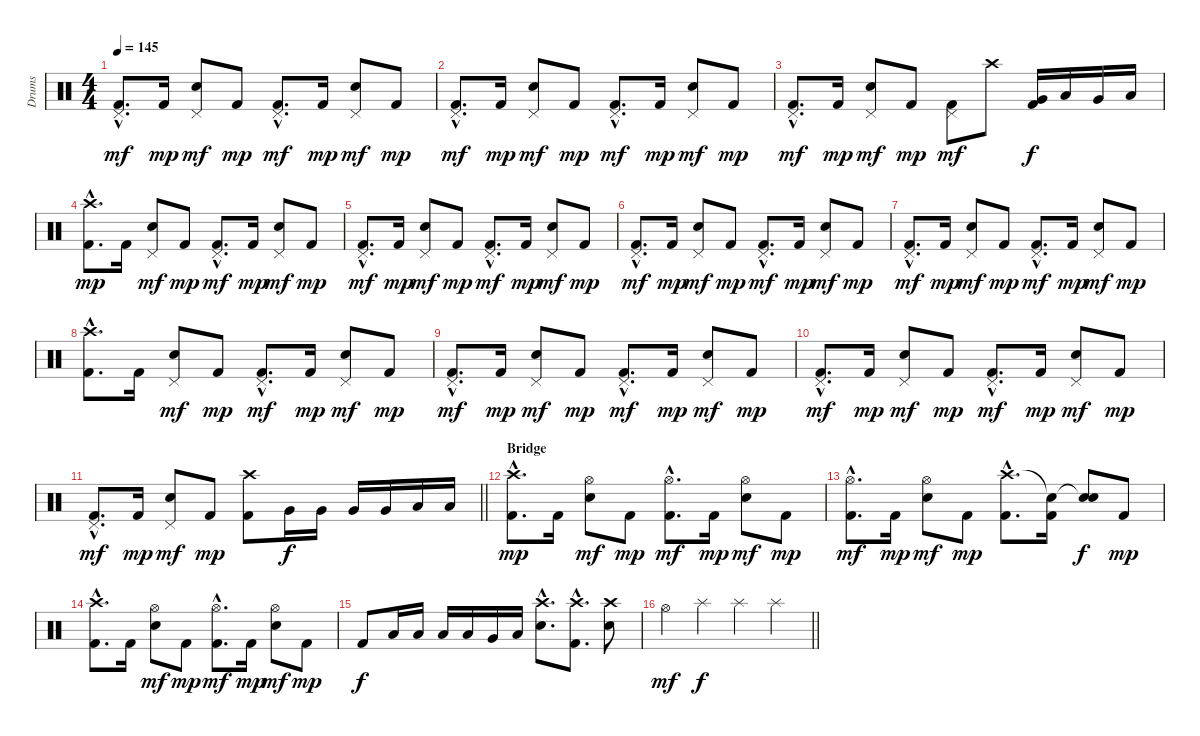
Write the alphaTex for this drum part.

\track ("Drums" "Drums") {instrument percussion}
\staff {score}
\articulation defaults
\ts (4 4)
\tempo 145
\clef neutral
\ks c
("Kick (hit) 2"{hac} "Pedal Hi-Hat (hit)"{hac}).8{d dy mf} "Kick (hit) 2".16{dy mp} ("Electric Snare (hit)" "Pedal Hi-Hat (hit)").8{dy mf} "Kick (hit) 2".8{dy mp} ("Kick (hit) 2"{hac} "Pedal Hi-Hat (hit)"{hac}).8{d dy mf} "Kick (hit) 2".16{dy mp} ("Electric Snare (hit)" "Pedal Hi-Hat (hit)").8{dy mf} "Kick (hit) 2".8{dy mp} |
("Kick (hit) 2"{hac} "Pedal Hi-Hat (hit)"{hac}).8{d dy mf} "Kick (hit) 2".16{dy mp} ("Electric Snare (hit)" "Pedal Hi-Hat (hit)").8{dy mf} "Kick (hit) 2".8{dy mp} ("Kick (hit) 2"{hac} "Pedal Hi-Hat (hit)"{hac}).8{d dy mf} "Kick (hit) 2".16{dy mp} ("Electric Snare (hit)" "Pedal Hi-Hat (hit)").8{dy mf} "Kick (hit) 2".8{dy mp} |
("Kick (hit) 2"{hac} "Pedal Hi-Hat (hit)"{hac}).8{d dy mf} "Kick (hit) 2".16{dy mp} ("Electric Snare (hit)" "Pedal Hi-Hat (hit)").8{dy mf} "Kick (hit) 2".8{dy mp} ("Kick (hit) 2" "Pedal Hi-Hat (hit)").8{dy mf} "Crash high (hit)".8 ("Kick (hit) 2" "Very Low Tom (hit)").16{dy f} "Low Floor Tom (hit)".16 "Very Low Tom (hit)".16 "Low Tom (hit)".16 |
("Kick (hit) 2"{hac} "Crash high (hit)"{hac}).8{d dy mp} "Kick (hit) 2".16 ("Electric Snare (hit)" "Pedal Hi-Hat (hit)").8{dy mf} "Kick (hit) 2".8{dy mp} ("Kick (hit) 2"{hac} "Pedal Hi-Hat (hit)"{hac}).8{d dy mf} "Kick (hit) 2".16{dy mp} ("Electric Snare (hit)" "Pedal Hi-Hat (hit)").8{dy mf} "Kick (hit) 2".8{dy mp} |
("Kick (hit) 2"{hac} "Pedal Hi-Hat (hit)"{hac}).8{d dy mf} "Kick (hit) 2".16{dy mp} ("Electric Snare (hit)" "Pedal Hi-Hat (hit)").8{dy mf} "Kick (hit) 2".8{dy mp} ("Kick (hit) 2"{hac} "Pedal Hi-Hat (hit)"{hac}).8{d dy mf} "Kick (hit) 2".16{dy mp} ("Electric Snare (hit)" "Pedal Hi-Hat (hit)").8{dy mf} "Kick (hit) 2".8{dy mp} |
("Kick (hit) 2"{hac} "Pedal Hi-Hat (hit)"{hac}).8{d dy mf} "Kick (hit) 2".16{dy mp} ("Electric Snare (hit)" "Pedal Hi-Hat (hit)").8{dy mf} "Kick (hit) 2".8{dy mp} ("Kick (hit) 2"{hac} "Pedal Hi-Hat (hit)"{hac}).8{d dy mf} "Kick (hit) 2".16{dy mp} ("Electric Snare (hit)" "Pedal Hi-Hat (hit)").8{dy mf} "Kick (hit) 2".8{dy mp} |
("Kick (hit) 2"{hac} "Pedal Hi-Hat (hit)"{hac}).8{d dy mf} "Kick (hit) 2".16{dy mp} ("Electric Snare (hit)" "Pedal Hi-Hat (hit)").8{dy mf} "Kick (hit) 2".8{dy mp} ("Kick (hit) 2"{hac} "Pedal Hi-Hat (hit)"{hac}).8{d dy mf} "Kick (hit) 2".16{dy mp} ("Electric Snare (hit)" "Pedal Hi-Hat (hit)").8{dy mf} "Kick (hit) 2".8{dy mp} |
("Kick (hit) 2"{hac} "Crash high (hit)"{hac}).8{d} "Kick (hit) 2".16 ("Electric Snare (hit)" "Pedal Hi-Hat (hit)").8{dy mf} "Kick (hit) 2".8{dy mp} ("Kick (hit) 2"{hac} "Pedal Hi-Hat (hit)"{hac}).8{d dy mf} "Kick (hit) 2".16{dy mp} ("Electric Snare (hit)" "Pedal Hi-Hat (hit)").8{dy mf} "Kick (hit) 2".8{dy mp} |
("Kick (hit) 2"{hac} "Pedal Hi-Hat (hit)"{hac}).8{d dy mf} "Kick (hit) 2".16{dy mp} ("Electric Snare (hit)" "Pedal Hi-Hat (hit)").8{dy mf} "Kick (hit) 2".8{dy mp} ("Kick (hit) 2"{hac} "Pedal Hi-Hat (hit)"{hac}).8{d dy mf} "Kick (hit) 2".16{dy mp} ("Electric Snare (hit)" "Pedal Hi-Hat (hit)").8{dy mf} "Kick (hit) 2".8{dy mp} |
("Kick (hit) 2"{hac} "Pedal Hi-Hat (hit)"{hac}).8{d dy mf} "Kick (hit) 2".16{dy mp} ("Electric Snare (hit)" "Pedal Hi-Hat (hit)").8{dy mf} "Kick (hit) 2".8{dy mp} ("Kick (hit) 2"{hac} "Pedal Hi-Hat (hit)"{hac}).8{d dy mf} "Kick (hit) 2".16{dy mp} ("Electric Snare (hit)" "Pedal Hi-Hat (hit)").8{dy mf} "Kick (hit) 2".8{dy mp} |
\barLineRight lightlight
("Kick (hit) 2"{hac} "Pedal Hi-Hat (hit)"{hac}).8{d dy mf} "Kick (hit) 2".16{dy mp} ("Electric Snare (hit)" "Pedal Hi-Hat (hit)").8{dy mf} "Kick (hit) 2".8{dy mp} ("Kick (hit) 2" "Crash high (hit)").8 "Very Low Tom (hit)".16{dy f} "Very Low Tom (hit)".16 "Very Low Tom (hit)".16 "Very Low Tom (hit)".16 "Low Floor Tom (hit)".16 "Low Floor Tom (hit)".16 |
\section ("" "Bridge")
("Kick (hit) 2"{hac} "Crash high (hit)"{hac}).8{d dy mp} "Kick (hit) 2".16 ("Electric Snare (hit)" "Hi-Hat (open)").8{dy mf} "Kick (hit) 2".8{dy mp} ("Kick (hit) 2"{hac} "Hi-Hat (open)"{hac}).8{d dy mf} "Kick (hit) 2".16{dy mp} ("Electric Snare (hit)" "Hi-Hat (open)").8{dy mf} "Kick (hit) 2".8{dy mp} |
("Kick (hit) 2"{hac} "Hi-Hat (open)"{hac}).8{d dy mf} "Kick (hit) 2".16{dy mp} ("Electric Snare (hit)" "Hi-Hat (open)").8{dy mf} "Kick (hit) 2".8{dy mp} ("Kick (hit) 2"{hac} "Crash high (hit)"{hac}).8{d} ("Kick (hit) 2" "Snare (hit)"{t}).16 ("Electric Snare (hit)" "Snare (hit)"{t}).8{dy f} "Kick (hit) 2".8{dy mp} |
("Kick (hit) 2"{hac} "Crash high (hit)"{hac}).8{d} "Kick (hit) 2".16 ("Electric Snare (hit)" "Hi-Hat (open)").8{dy mf} "Kick (hit) 2".8{dy mp} ("Kick (hit) 2"{hac} "Hi-Hat (open)"{hac}).8{d dy mf} "Kick (hit) 2".16{dy mp} ("Electric Snare (hit)" "Hi-Hat (open)").8{dy mf} "Kick (hit) 2".8{dy mp} |
"Kick (hit) 2".8{dy f} "Low Tom (hit)".16 "Low Tom (hit)".16 "Low Tom (hit)".16 "Low Tom (hit)".16 "Very Low Tom (hit)".16 "Low Floor Tom (hit)".16 ("Electric Snare (hit)"{hac} "Crash high (hit)"{hac}).8{d} ("Kick (hit) 2"{hac} "Crash high (hit)"{hac}).8{d} ("Electric Snare (hit)" "Crash high (hit)").8 |
\barLineRight lightlight "Hi-Hat (open)".4{dy mf} "Splash (hit)".4{dy f} "Splash (hit)".4 "Splash (hit)".4
